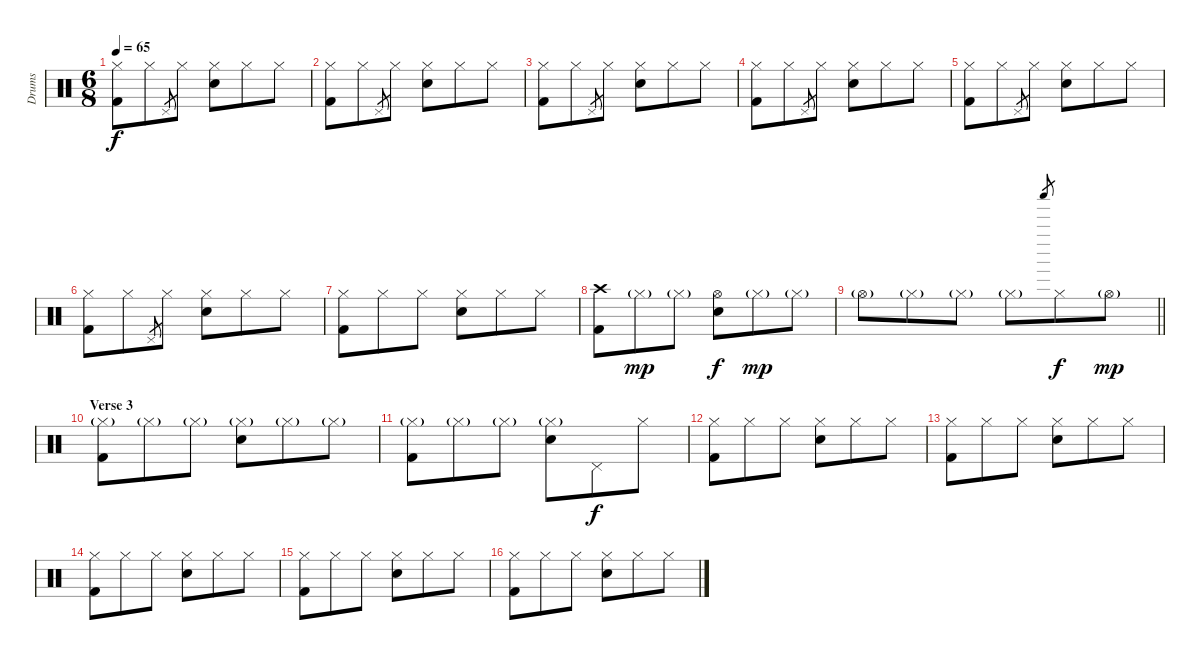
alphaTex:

\track ("Drums" "Drums") {instrument percussion}
\staff {score}
\articulation defaults
\ts (6 8)
\tempo 65
\clef neutral
\ks c
("Hi-Hat (closed)" "Kick (hit) 2").8{dy f} "Hi-Hat (closed)".8 "Pedal Hi-Hat (hit)".8{gr} "Hi-Hat (closed)".8 ("Hi-Hat (closed)" "Snare (hit) 2").8 "Hi-Hat (closed)".8 "Hi-Hat (closed)".8 |
("Hi-Hat (closed)" "Kick (hit) 2").8 "Hi-Hat (closed)".8 "Pedal Hi-Hat (hit)".8{gr} "Hi-Hat (closed)".8 ("Hi-Hat (closed)" "Snare (hit) 2").8 "Hi-Hat (closed)".8 "Hi-Hat (closed)".8 |
("Hi-Hat (closed)" "Kick (hit) 2").8 "Hi-Hat (closed)".8 "Pedal Hi-Hat (hit)".8{gr} "Hi-Hat (closed)".8 ("Hi-Hat (closed)" "Snare (hit) 2").8 "Hi-Hat (closed)".8 "Hi-Hat (closed)".8 |
("Hi-Hat (closed)" "Kick (hit) 2").8 "Hi-Hat (closed)".8 "Pedal Hi-Hat (hit)".8{gr} "Hi-Hat (closed)".8 ("Hi-Hat (closed)" "Snare (hit) 2").8 "Hi-Hat (closed)".8 "Hi-Hat (closed)".8 |
("Hi-Hat (closed)" "Kick (hit) 2").8 "Hi-Hat (closed)".8 "Pedal Hi-Hat (hit)".8{gr} "Hi-Hat (closed)".8 ("Hi-Hat (closed)" "Snare (hit) 2").8 "Hi-Hat (closed)".8 "Hi-Hat (closed)".8 |
("Hi-Hat (closed)" "Kick (hit) 2").8 "Hi-Hat (closed)".8 "Pedal Hi-Hat (hit)".8{gr} "Hi-Hat (closed)".8 ("Hi-Hat (closed)" "Snare (hit) 2").8 "Hi-Hat (closed)".8 "Hi-Hat (closed)".8 |
("Hi-Hat (closed)" "Kick (hit) 2").8 "Hi-Hat (closed)".8 "Hi-Hat (closed)".8 ("Hi-Hat (closed)" "Snare (hit) 2").8 "Hi-Hat (closed)".8 "Hi-Hat (closed)".8 |
("Crash high (hit)" "Kick (hit) 2").8 "Hi-Hat (closed)"{g}.8{dy mp} "Hi-Hat (closed)"{g}.8 ("Hi-Hat (open)" "Snare (hit) 2").8{dy f} "Hi-Hat (closed)"{g}.8{dy mp} "Hi-Hat (closed)"{g}.8 |
\barLineRight lightlight "Hi-Hat (open)"{g}.8 "Hi-Hat (closed)"{g}.8 "Hi-Hat (closed)"{g}.8 "Hi-Hat (closed)"{g}.8 "Shaker (hit)".8{gr} "Hi-Hat (closed)".8{dy f} "Hi-Hat (open)"{g}.8{dy mp}
|
\section ("" "Verse 3")
("Hi-Hat (closed)"{g} "Kick (hit) 2").8 "Hi-Hat (closed)"{g}.8 "Hi-Hat (closed)"{g}.8 ("Hi-Hat (closed)"{g} "Snare (hit) 2").8 "Hi-Hat (closed)"{g}.8 "Hi-Hat (closed)"{g}.8 |
("Hi-Hat (closed)"{g} "Kick (hit) 2").8 "Hi-Hat (closed)"{g}.8 "Hi-Hat (closed)"{g}.8 ("Hi-Hat (closed)"{g} "Snare (hit) 2").8 "Pedal Hi-Hat (hit)".8{dy f} "Hi-Hat (closed)".8 |
("Hi-Hat (closed)" "Kick (hit) 2").8 "Hi-Hat (closed)".8 "Hi-Hat (closed)".8 ("Hi-Hat (closed)" "Snare (hit) 2").8 "Hi-Hat (closed)".8 "Hi-Hat (closed)".8 |
("Hi-Hat (closed)" "Kick (hit) 2").8 "Hi-Hat (closed)".8 "Hi-Hat (closed)".8 ("Hi-Hat (closed)" "Snare (hit) 2").8 "Hi-Hat (closed)".8 "Hi-Hat (closed)".8 |
("Hi-Hat (closed)" "Kick (hit) 2").8 "Hi-Hat (closed)".8 "Hi-Hat (closed)".8 ("Hi-Hat (closed)" "Snare (hit) 2").8 "Hi-Hat (closed)".8 "Hi-Hat (closed)".8 |
("Hi-Hat (closed)" "Kick (hit) 2").8 "Hi-Hat (closed)".8 "Hi-Hat (closed)".8 ("Hi-Hat (closed)" "Snare (hit) 2").8 "Hi-Hat (closed)".8 "Hi-Hat (closed)".8 |
("Hi-Hat (closed)" "Kick (hit) 2").8 "Hi-Hat (closed)".8 "Hi-Hat (closed)".8 ("Hi-Hat (closed)" "Snare (hit) 2").8 "Hi-Hat (closed)".8 "Hi-Hat (closed)".8
